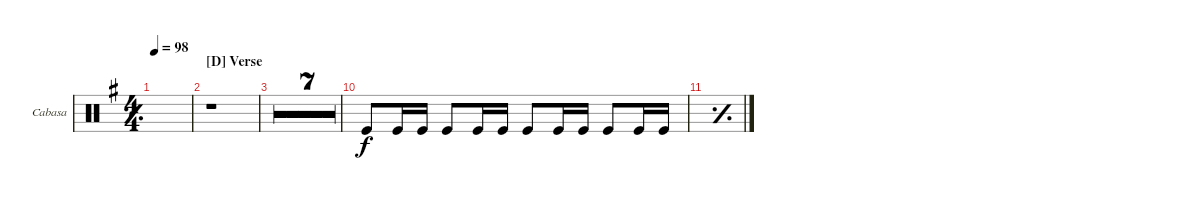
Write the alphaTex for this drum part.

\defaultSystemsLayout 4
\bracketExtendMode groupsimilarinstruments
\firstSystemTrackNameOrientation horizontal
\otherSystemsTrackNameOrientation horizontal
\track ("Cabasa" "Cabasa") {multiBarRest instrument percussion}
\staff {score}
\articulation defaults
\ts (4 4)
\tempo 98
\clef neutral
\simile simple
\ks g
|
\section ("D" "Verse")
r.1 |
r.1 |
r.1 |
r.1 |
r.1 |
r.1 |
r.1 |
r.1 |
"Kick (hit)".8 "Kick (hit)".16 "Kick (hit)".16 "Kick (hit)".8 "Kick (hit)".16 "Kick (hit)".16 "Kick (hit)".8 "Kick (hit)".16 "Kick (hit)".16 "Kick (hit)".8 "Kick (hit)".16 "Kick (hit)".16 |
\simile simple
